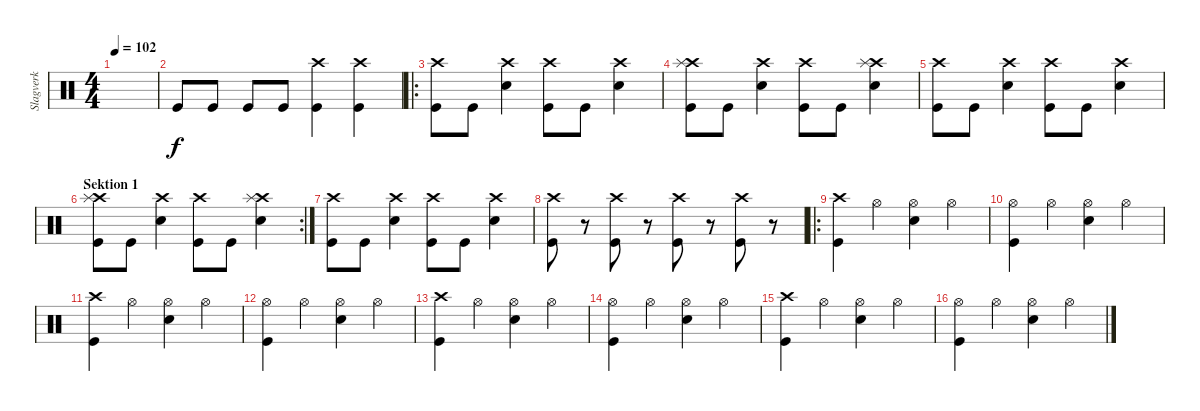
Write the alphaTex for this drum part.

\track ("Slagverk" "Slagverk") {instrument percussion}
\staff {score}
\articulation defaults
\ts (4 4)
\tempo 102
\clef neutral
\ks c
|
"Kick (hit)".8 "Kick (hit)".8 "Kick (hit)".8 "Kick (hit)".8 ("Crash high (hit)" "Kick (hit)").4 ("Crash high (hit)" "Kick (hit)").4 |
\ro
("Crash high (hit)" "Kick (hit)").8 "Kick (hit)".8 ("Crash high (hit)" "Snare (hit) 2").4 ("Crash high (hit)" "Kick (hit)").8 "Kick (hit)".8 ("Crash high (hit)" "Snare (hit) 2").4 |
("Crash high (hit)" "Splash (hit)" "Kick (hit)").8 "Kick (hit)".8 ("Crash high (hit)" "Snare (hit) 2").4 ("Crash high (hit)" "Kick (hit)").8 "Kick (hit)".8 ("Crash high (hit)" "Splash (hit)" "Snare (hit) 2").4 |
("Crash high (hit)" "Kick (hit)").8 "Kick (hit)".8 ("Crash high (hit)" "Snare (hit) 2").4 ("Crash high (hit)" "Kick (hit)").8 "Kick (hit)".8 ("Crash high (hit)" "Snare (hit) 2").4 |
\rc 2
\section ("" "Sektion 1")
("Crash high (hit)" "Splash (hit)" "Kick (hit)").8 "Kick (hit)".8 ("Crash high (hit)" "Snare (hit) 2").4 ("Crash high (hit)" "Kick (hit)").8 "Kick (hit)".8 ("Crash high (hit)" "Splash (hit)" "Snare (hit) 2").4 |
("Crash high (hit)" "Kick (hit)").8 "Kick (hit)".8 ("Crash high (hit)" "Snare (hit) 2").4 ("Crash high (hit)" "Kick (hit)").8 "Kick (hit)".8 ("Crash high (hit)" "Snare (hit) 2").4 |
("Crash high (hit)" "Kick (hit)").8 r.8 ("Crash high (hit)" "Kick (hit)").8 r.8 ("Crash high (hit)" "Kick (hit)").8 r.8 ("Crash high (hit)" "Kick (hit)").8 r.8 |
\ro
("Crash high (hit)" "Kick (hit)").4 "Hi-Hat (open)".4 ("Hi-Hat (open)" "Snare (hit) 2").4 "Hi-Hat (open)".4 |
("Hi-Hat (open)" "Kick (hit)").4 "Hi-Hat (open)".4 ("Hi-Hat (open)" "Snare (hit) 2").4 "Hi-Hat (open)".4 |
("Crash high (hit)" "Kick (hit)").4 "Hi-Hat (open)".4 ("Hi-Hat (open)" "Snare (hit) 2").4 "Hi-Hat (open)".4 |
("Hi-Hat (open)" "Kick (hit)").4 "Hi-Hat (open)".4 ("Hi-Hat (open)" "Snare (hit) 2").4 "Hi-Hat (open)".4 |
("Crash high (hit)" "Kick (hit)").4 "Hi-Hat (open)".4 ("Hi-Hat (open)" "Snare (hit) 2").4 "Hi-Hat (open)".4 |
("Hi-Hat (open)" "Kick (hit)").4 "Hi-Hat (open)".4 ("Hi-Hat (open)" "Snare (hit) 2").4 "Hi-Hat (open)".4 |
("Crash high (hit)" "Kick (hit)").4 "Hi-Hat (open)".4 ("Hi-Hat (open)" "Snare (hit) 2").4 "Hi-Hat (open)".4 |
("Hi-Hat (open)" "Kick (hit)").4 "Hi-Hat (open)".4 ("Hi-Hat (open)" "Snare (hit) 2").4 "Hi-Hat (open)".4
